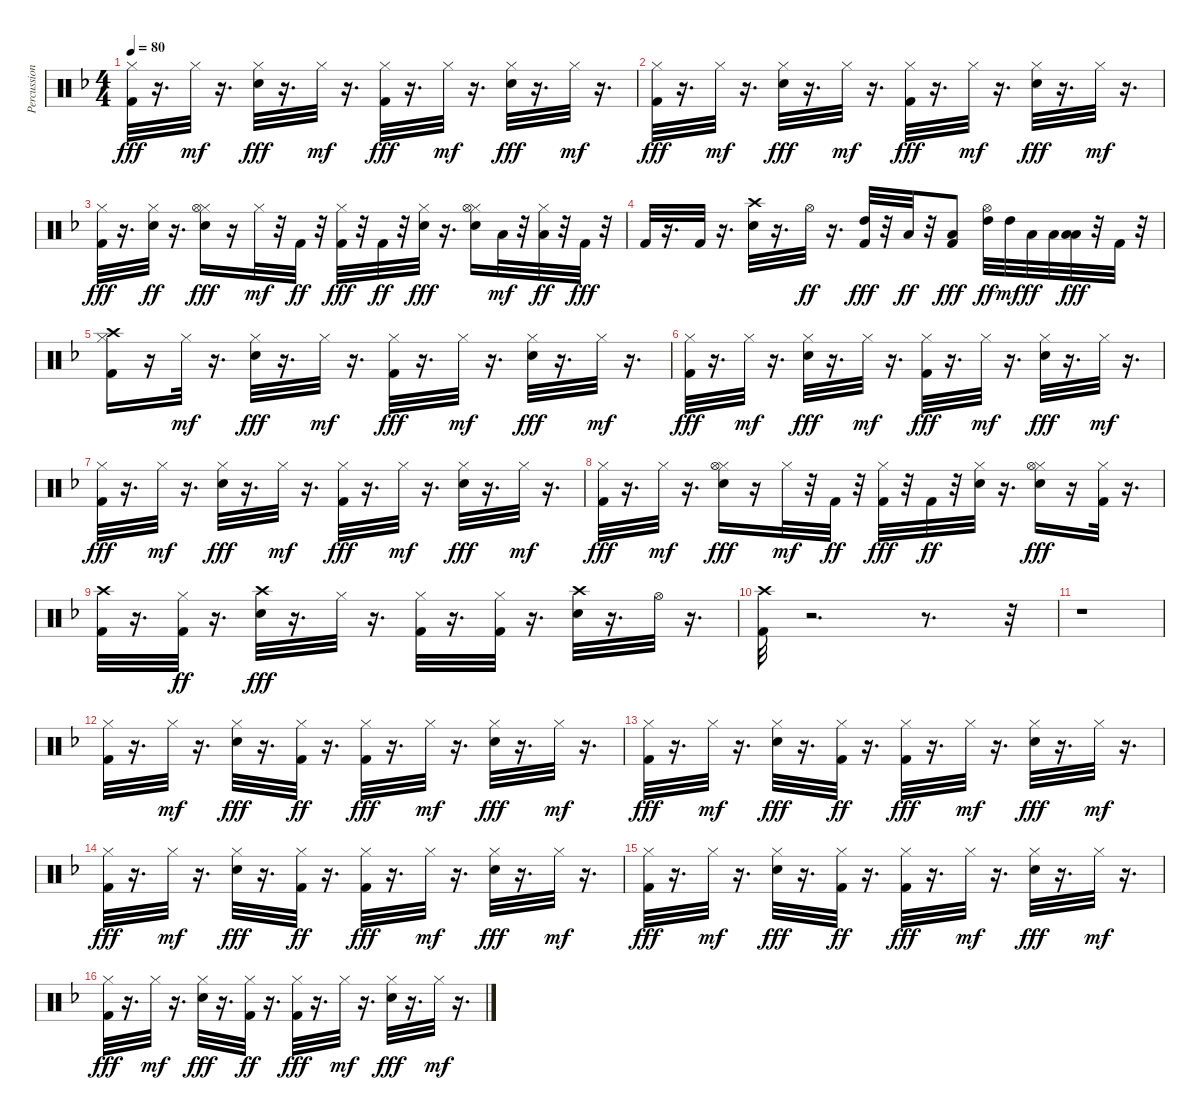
\track ("Percussion" "Percussion") {instrument percussion}
\staff {score}
\articulation defaults
\ts (4 4)
\tempo 80
\clef neutral
\ks f
("Hi-Hat (closed)" "Kick (hit) 2").32{dy fff} r.16{d} "Hi-Hat (closed)".32{dy mf} r.16{d} ("Hi-Hat (closed)" "Snare (hit) 2").32{dy fff} r.16{d} "Hi-Hat (closed)".32{dy mf} r.16{d} ("Hi-Hat (closed)" "Kick (hit) 2").32{dy fff} r.16{d} "Hi-Hat (closed)".32{dy mf} r.16{d} ("Hi-Hat (closed)" "Snare (hit) 2").32{dy fff} r.16{d} "Hi-Hat (closed)".32{dy mf} r.16{d} |
("Hi-Hat (closed)" "Kick (hit) 2").32{dy fff} r.16{d} "Hi-Hat (closed)".32{dy mf} r.16{d} ("Hi-Hat (closed)" "Snare (hit) 2").32{dy fff} r.16{d} "Hi-Hat (closed)".32{dy mf} r.16{d} ("Hi-Hat (closed)" "Kick (hit) 2").32{dy fff} r.16{d} "Hi-Hat (closed)".32{dy mf} r.16{d} ("Hi-Hat (closed)" "Snare (hit) 2").32{dy fff} r.16{d} "Hi-Hat (closed)".32{dy mf} r.16{d} |
("Hi-Hat (closed)" "Kick (hit) 2").32{dy fff} r.16{d} ("Hi-Hat (closed)" "Snare (hit) 2").32{dy ff} r.16{d} ("Hi-Hat (closed)" "Hi-Hat (open)" "Snare (hit) 2").16{dy fff} r.16 "Hi-Hat (closed)".32{dy mf} r.32 "Kick (hit) 2".32{dy ff} r.32 ("Hi-Hat (closed)" "Kick (hit) 2").32{dy fff} r.32 "Kick (hit) 2".32{dy ff} r.32 ("Hi-Hat (closed)" "Snare (hit) 2").32{dy fff} r.16{d} ("Hi-Hat (closed)" "Hi-Hat (open)" "Snare (hit) 2").16 "Low Tom (hit)".32{dy mf} r.32 ("Hi-Hat (closed)" "Low Floor Tom (hit)").32{dy ff} r.32 "Kick (hit) 2".32{dy fff} r.32 |
"Kick (hit) 2".32 r.16{d} "Kick (hit) 2".32 r.16{d} ("Crash high (hit)" "Snare (hit) 2").32 r.16{d} "Hi-Hat (open)".32{dy ff} r.16{d} ("High Tom (hit)" "Kick (hit) 2").32{dy fff} r.32 "Low Tom (hit)".32{dy ff} r.32 ("Kick (hit) 2" "Low Floor Tom (hit)").8{dy fff} ("High Tom (hit)" "Hi-Hat (open)").32{dy ff} "High Tom (hit)".32{dy mf} "Low Tom (hit)".32{dy ff} "Low Tom (hit)".32 ("Low Floor Tom (hit)" "Low Floor Tom (hit)").32{dy fff} r.32 "Kick (hit) 2".32 r.32 |
("Hi-Hat (closed)" "Crash high (hit)" "Kick (hit) 2").16 r.16 "Hi-Hat (closed)".32{dy mf} r.16{d} ("Hi-Hat (closed)" "Snare (hit) 2").32{dy fff} r.16{d} "Hi-Hat (closed)".32{dy mf} r.16{d} ("Hi-Hat (closed)" "Kick (hit) 2").32{dy fff} r.16{d} "Hi-Hat (closed)".32{dy mf} r.16{d} ("Hi-Hat (closed)" "Snare (hit) 2").32{dy fff} r.16{d} "Hi-Hat (closed)".32{dy mf} r.16{d} |
("Hi-Hat (closed)" "Kick (hit) 2").32{dy fff} r.16{d} "Hi-Hat (closed)".32{dy mf} r.16{d} ("Hi-Hat (closed)" "Snare (hit) 2").32{dy fff} r.16{d} "Hi-Hat (closed)".32{dy mf} r.16{d} ("Hi-Hat (closed)" "Kick (hit) 2").32{dy fff} r.16{d} "Hi-Hat (closed)".32{dy mf} r.16{d} ("Hi-Hat (closed)" "Snare (hit) 2").32{dy fff} r.16{d} "Hi-Hat (closed)".32{dy mf} r.16{d} |
("Hi-Hat (closed)" "Kick (hit) 2").32{dy fff} r.16{d} "Hi-Hat (closed)".32{dy mf} r.16{d} ("Hi-Hat (closed)" "Snare (hit) 2").32{dy fff} r.16{d} "Hi-Hat (closed)".32{dy mf} r.16{d} ("Hi-Hat (closed)" "Kick (hit) 2").32{dy fff} r.16{d} "Hi-Hat (closed)".32{dy mf} r.16{d} ("Hi-Hat (closed)" "Snare (hit) 2").32{dy fff} r.16{d} "Hi-Hat (closed)".32{dy mf} r.16{d} |
("Hi-Hat (closed)" "Kick (hit) 2").32{dy fff} r.16{d} "Hi-Hat (closed)".32{dy mf} r.16{d} ("Hi-Hat (closed)" "Hi-Hat (open)" "Snare (hit) 2").16{dy fff} r.16 "Hi-Hat (closed)".32{dy mf} r.32 "Kick (hit) 2".32{dy ff} r.32 ("Hi-Hat (closed)" "Kick (hit) 2").32{dy fff} r.32 "Kick (hit) 2".32{dy ff} r.32 ("Hi-Hat (closed)" "Snare (hit) 2").32 r.16{d} ("Hi-Hat (closed)" "Hi-Hat (open)" "Snare (hit) 2").16{dy fff} r.16 ("Hi-Hat (closed)" "Kick (hit) 2").32 r.16{d} |
("Crash high (hit)" "Kick (hit) 2").32 r.16{d} ("Hi-Hat (closed)" "Kick (hit) 2").32{dy ff} r.16{d} ("Crash high (hit)" "Snare (hit) 2").32{dy fff} r.16{d} "Hi-Hat (closed)".32 r.16{d} ("Hi-Hat (closed)" "Kick (hit) 2").32 r.16{d} ("Hi-Hat (closed)" "Kick (hit) 2").32 r.16{d} ("Crash high (hit)" "Snare (hit) 2").32 r.16{d} "Hi-Hat (open)".32 r.16{d} |
("Crash high (hit)" "Kick (hit) 2").32 r.2{d} r.8{d} r.32 |
r.1 |
("Hi-Hat (closed)" "Kick (hit) 2").32 r.16{d} "Hi-Hat (closed)".32{dy mf} r.16{d} ("Hi-Hat (closed)" "Snare (hit) 2").32{dy fff} r.16{d} ("Hi-Hat (closed)" "Kick (hit) 2").32{dy ff} r.16{d} ("Hi-Hat (closed)" "Kick (hit) 2").32{dy fff} r.16{d} "Hi-Hat (closed)".32{dy mf} r.16{d} ("Hi-Hat (closed)" "Snare (hit) 2").32{dy fff} r.16{d} "Hi-Hat (closed)".32{dy mf} r.16{d} |
("Hi-Hat (closed)" "Kick (hit) 2").32{dy fff} r.16{d} "Hi-Hat (closed)".32{dy mf} r.16{d} ("Hi-Hat (closed)" "Snare (hit) 2").32{dy fff} r.16{d} ("Hi-Hat (closed)" "Kick (hit) 2").32{dy ff} r.16{d} ("Hi-Hat (closed)" "Kick (hit) 2").32{dy fff} r.16{d} "Hi-Hat (closed)".32{dy mf} r.16{d} ("Hi-Hat (closed)" "Snare (hit) 2").32{dy fff} r.16{d} "Hi-Hat (closed)".32{dy mf} r.16{d} |
("Hi-Hat (closed)" "Kick (hit) 2").32{dy fff} r.16{d} "Hi-Hat (closed)".32{dy mf} r.16{d} ("Hi-Hat (closed)" "Snare (hit) 2").32{dy fff} r.16{d} ("Hi-Hat (closed)" "Kick (hit) 2").32{dy ff} r.16{d} ("Hi-Hat (closed)" "Kick (hit) 2").32{dy fff} r.16{d} "Hi-Hat (closed)".32{dy mf} r.16{d} ("Hi-Hat (closed)" "Snare (hit) 2").32{dy fff} r.16{d} "Hi-Hat (closed)".32{dy mf} r.16{d} |
("Hi-Hat (closed)" "Kick (hit) 2").32{dy fff} r.16{d} "Hi-Hat (closed)".32{dy mf} r.16{d} ("Hi-Hat (closed)" "Snare (hit) 2").32{dy fff} r.16{d} ("Hi-Hat (closed)" "Kick (hit) 2").32{dy ff} r.16{d} ("Hi-Hat (closed)" "Kick (hit) 2").32{dy fff} r.16{d} "Hi-Hat (closed)".32{dy mf} r.16{d} ("Hi-Hat (closed)" "Snare (hit) 2").32{dy fff} r.16{d} "Hi-Hat (closed)".32{dy mf} r.16{d} |
("Hi-Hat (closed)" "Kick (hit) 2").32{dy fff} r.16{d} "Hi-Hat (closed)".32{dy mf} r.16{d} ("Hi-Hat (closed)" "Snare (hit) 2").32{dy fff} r.16{d} ("Hi-Hat (closed)" "Kick (hit) 2").32{dy ff} r.16{d} ("Hi-Hat (closed)" "Kick (hit) 2").32{dy fff} r.16{d} "Hi-Hat (closed)".32{dy mf} r.16{d} ("Hi-Hat (closed)" "Snare (hit) 2").32{dy fff} r.16{d} "Hi-Hat (closed)".32{dy mf} r.16{d}
